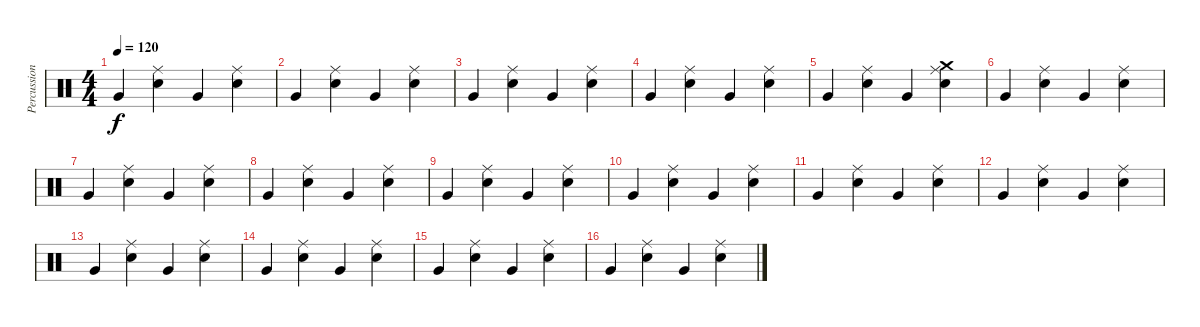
\track ("Percussion" "Percussion") {instrument percussion}
\staff {score}
\articulation defaults
\ts (4 4)
\tempo 120
\clef neutral
\ks c "Very Low Tom (hit)".4{dy f}
("Ride (middle)" "Snare (hit) 2").4 "Very Low Tom (hit)".4 ("Ride (middle)" "Snare (hit) 2").4 |
"Very Low Tom (hit)".4 ("Ride (middle)" "Snare (hit) 2").4 "Very Low Tom (hit)".4 ("Ride (middle)" "Snare (hit) 2").4 |
"Very Low Tom (hit)".4 ("Ride (middle)" "Snare (hit) 2").4 "Very Low Tom (hit)".4 ("Ride (middle)" "Snare (hit) 2").4 |
"Very Low Tom (hit)".4 ("Ride (middle)" "Snare (hit) 2").4 "Very Low Tom (hit)".4 ("Ride (middle)" "Snare (hit) 2").4 |
"Very Low Tom (hit)".4 ("Ride (middle)" "Snare (hit) 2").4 "Very Low Tom (hit)".4 ("Crash medium (hit)" "Ride (middle)" "Snare (hit) 2").4 |
"Very Low Tom (hit)".4 ("Ride (middle)" "Snare (hit) 2").4 "Very Low Tom (hit)".4 ("Ride (middle)" "Snare (hit) 2").4 |
"Very Low Tom (hit)".4 ("Ride (middle)" "Snare (hit) 2").4 "Very Low Tom (hit)".4 ("Ride (middle)" "Snare (hit) 2").4 |
"Very Low Tom (hit)".4 ("Ride (middle)" "Snare (hit) 2").4 "Very Low Tom (hit)".4 ("Ride (middle)" "Snare (hit) 2").4 |
"Very Low Tom (hit)".4 ("Ride (middle)" "Snare (hit) 2").4 "Very Low Tom (hit)".4 ("Ride (middle)" "Snare (hit) 2").4 |
"Very Low Tom (hit)".4 ("Ride (middle)" "Snare (hit) 2").4 "Very Low Tom (hit)".4 ("Ride (middle)" "Snare (hit) 2").4 |
"Very Low Tom (hit)".4 ("Ride (middle)" "Snare (hit) 2").4 "Very Low Tom (hit)".4 ("Ride (middle)" "Snare (hit) 2").4 |
"Very Low Tom (hit)".4 ("Ride (middle)" "Snare (hit) 2").4 "Very Low Tom (hit)".4 ("Ride (middle)" "Snare (hit) 2").4 |
"Very Low Tom (hit)".4 ("Ride (middle)" "Snare (hit) 2").4 "Very Low Tom (hit)".4 ("Ride (middle)" "Snare (hit) 2").4 |
"Very Low Tom (hit)".4 ("Ride (middle)" "Snare (hit) 2").4 "Very Low Tom (hit)".4 ("Ride (middle)" "Snare (hit) 2").4 |
"Very Low Tom (hit)".4 ("Ride (middle)" "Snare (hit) 2").4 "Very Low Tom (hit)".4 ("Ride (middle)" "Snare (hit) 2").4 |
"Very Low Tom (hit)".4 ("Ride (middle)" "Snare (hit) 2").4 "Very Low Tom (hit)".4 ("Ride (middle)" "Snare (hit) 2").4
